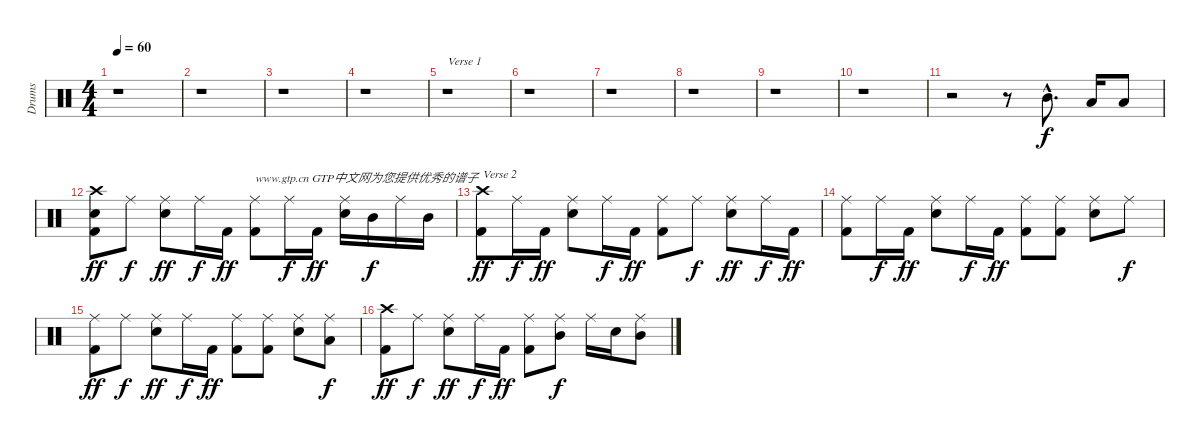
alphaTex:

\track ("Drums" "Drums") {instrument percussion}
\staff {score}
\articulation defaults
\ts (4 4)
\tempo 60
\clef neutral
\ks c
r.1{dy f} |
r.1 |
r.1 |
r.1 |
r.1{txt "Verse 1"} |
r.1 |
r.1 |
r.1 |
r.1 |
r.1 |
r.2 r.8 "Mid Tom (hit)"{hac}.8{d} "Low Tom (hit)".16 "Low Tom (hit)".8 |
("Crash high (hit)" "Snare (hit) 2" "Kick (hit) 2").8{dy ff} "Ride (middle)".8{dy f} ("Ride (middle)" "Snare (hit) 2").8{dy ff} "Ride (middle)".16{dy f} "Kick (hit) 2".16{dy ff} ("Ride (middle)" "Kick (hit) 2").8{txt "www.gtp.cn GTP中文网为您提供优秀的谱子"} "Ride (middle)".16{dy f} "Kick (hit) 2".16{dy ff} ("Ride (middle)" "Snare (hit) 2").16 "Mid Tom (hit)".16{dy f} "Ride (middle)".16 "Mid Tom (hit)".16 |
("Crash high (hit)" "Kick (hit) 2").8{txt "Verse 2" dy ff} "Ride (middle)".16{dy f} "Kick (hit) 2".16{dy ff} ("Ride (middle)" "Snare (hit) 2").8 "Ride (middle)".16{dy f} "Kick (hit) 2".16{dy ff} ("Ride (middle)" "Kick (hit) 2").8 "Ride (middle)".8{dy f} ("Ride (middle)" "Snare (hit) 2").8{dy ff} "Ride (middle)".16{dy f} "Kick (hit) 2".16{dy ff} |
("Ride (middle)" "Kick (hit) 2").8 "Ride (middle)".16{dy f} "Kick (hit) 2".16{dy ff} ("Ride (middle)" "Snare (hit) 2").8 "Ride (middle)".16{dy f} "Kick (hit) 2".16{dy ff} ("Ride (middle)" "Kick (hit) 2").8 ("Ride (middle)" "Kick (hit) 2").8 ("Ride (middle)" "Snare (hit) 2").8 "Ride (middle)".8{dy f} |
("Ride (middle)" "Kick (hit) 2").8{dy ff} "Ride (middle)".8{dy f} ("Ride (middle)" "Snare (hit) 2").8{dy ff} "Ride (middle)".16{dy f} "Kick (hit) 2".16{dy ff} ("Ride (middle)" "Kick (hit) 2").8 ("Ride (middle)" "Kick (hit) 2").8 ("Ride (middle)" "Snare (hit) 2").8 ("Ride (middle)" "Low Tom (hit)").8{dy f} |
("Crash high (hit)" "Kick (hit) 2").8{dy ff} "Ride (middle)".8{dy f} ("Ride (middle)" "Snare (hit) 2").8{dy ff} "Ride (middle)".16{dy f} "Kick (hit) 2".16{dy ff} ("Ride (middle)" "Kick (hit) 2").8 ("Ride (middle)" "Mid Tom (hit)").8{dy f} "Ride (middle)".16 "Snare (hit) 2".16 ("Ride (middle)" "Mid Tom (hit)").8
